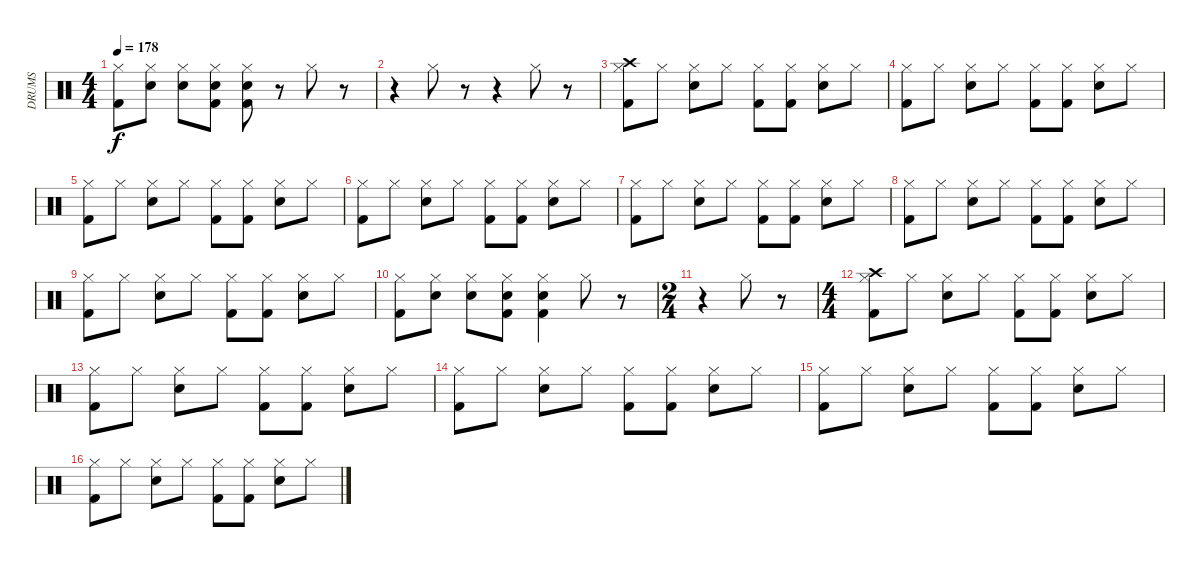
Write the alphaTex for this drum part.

\track ("DRUMS" "DRUMS") {instrument percussion}
\staff {score}
\articulation defaults
\ts (4 4)
\tempo 178
\clef neutral
\ks c
("Hi-Hat (closed)" "Kick (hit) 2").8{dy f} ("Hi-Hat (closed)" "Snare (hit) 2").8 ("Hi-Hat (closed)" "Snare (hit) 2").8 ("Hi-Hat (closed)" "Snare (hit) 2" "Kick (hit) 2").8 ("Hi-Hat (closed)" "Snare (hit) 2" "Kick (hit) 2").8 r.8 "Hi-Hat (closed)".8 r.8 |
r.4 "Hi-Hat (closed)".8 r.8 r.4 "Hi-Hat (closed)".8 r.8 |
("Hi-Hat (closed)" "Crash high (hit)" "Kick (hit) 2").8 "Hi-Hat (closed)".8 ("Hi-Hat (closed)" "Snare (hit) 2").8 "Hi-Hat (closed)".8 ("Hi-Hat (closed)" "Kick (hit) 2").8 ("Hi-Hat (closed)" "Kick (hit) 2").8 ("Hi-Hat (closed)" "Snare (hit) 2").8 "Hi-Hat (closed)".8 |
("Hi-Hat (closed)" "Kick (hit) 2").8 "Hi-Hat (closed)".8 ("Hi-Hat (closed)" "Snare (hit) 2").8 "Hi-Hat (closed)".8 ("Hi-Hat (closed)" "Kick (hit) 2").8 ("Hi-Hat (closed)" "Kick (hit) 2").8 ("Hi-Hat (closed)" "Snare (hit) 2").8 "Hi-Hat (closed)".8 |
("Hi-Hat (closed)" "Kick (hit) 2").8 "Hi-Hat (closed)".8 ("Hi-Hat (closed)" "Snare (hit) 2").8 "Hi-Hat (closed)".8 ("Hi-Hat (closed)" "Kick (hit) 2").8 ("Hi-Hat (closed)" "Kick (hit) 2").8 ("Hi-Hat (closed)" "Snare (hit) 2").8 "Hi-Hat (closed)".8 |
("Hi-Hat (closed)" "Kick (hit) 2").8 "Hi-Hat (closed)".8 ("Hi-Hat (closed)" "Snare (hit) 2").8 "Hi-Hat (closed)".8 ("Hi-Hat (closed)" "Kick (hit) 2").8 ("Hi-Hat (closed)" "Kick (hit) 2").8 ("Hi-Hat (closed)" "Snare (hit) 2").8 "Hi-Hat (closed)".8 |
("Hi-Hat (closed)" "Kick (hit) 2").8 "Hi-Hat (closed)".8 ("Hi-Hat (closed)" "Snare (hit) 2").8 "Hi-Hat (closed)".8 ("Hi-Hat (closed)" "Kick (hit) 2").8 ("Hi-Hat (closed)" "Kick (hit) 2").8 ("Hi-Hat (closed)" "Snare (hit) 2").8 "Hi-Hat (closed)".8 |
("Hi-Hat (closed)" "Kick (hit) 2").8 "Hi-Hat (closed)".8 ("Hi-Hat (closed)" "Snare (hit) 2").8 "Hi-Hat (closed)".8 ("Hi-Hat (closed)" "Kick (hit) 2").8 ("Hi-Hat (closed)" "Kick (hit) 2").8 ("Hi-Hat (closed)" "Snare (hit) 2").8 "Hi-Hat (closed)".8 |
("Hi-Hat (closed)" "Kick (hit) 2").8 "Hi-Hat (closed)".8 ("Hi-Hat (closed)" "Snare (hit) 2").8 "Hi-Hat (closed)".8 ("Hi-Hat (closed)" "Kick (hit) 2").8 ("Hi-Hat (closed)" "Kick (hit) 2").8 ("Hi-Hat (closed)" "Snare (hit) 2").8 "Hi-Hat (closed)".8 |
("Hi-Hat (closed)" "Kick (hit) 2").8 ("Hi-Hat (closed)" "Snare (hit) 2").8 ("Hi-Hat (closed)" "Snare (hit) 2").8 ("Hi-Hat (closed)" "Snare (hit) 2" "Kick (hit) 2").8 ("Hi-Hat (closed)" "Snare (hit) 2" "Kick (hit) 2").4 "Hi-Hat (closed)".8 r.8 |
\ts (2 4)
r.4 "Hi-Hat (closed)".8 r.8 |
\ts (4 4)
("Hi-Hat (closed)" "Crash high (hit)" "Kick (hit) 2").8 "Hi-Hat (closed)".8 ("Hi-Hat (closed)" "Snare (hit) 2").8 "Hi-Hat (closed)".8 ("Hi-Hat (closed)" "Kick (hit) 2").8 ("Hi-Hat (closed)" "Kick (hit) 2").8 ("Hi-Hat (closed)" "Snare (hit) 2").8 "Hi-Hat (closed)".8 |
("Hi-Hat (closed)" "Kick (hit) 2").8 "Hi-Hat (closed)".8 ("Hi-Hat (closed)" "Snare (hit) 2").8 "Hi-Hat (closed)".8 ("Hi-Hat (closed)" "Kick (hit) 2").8 ("Hi-Hat (closed)" "Kick (hit) 2").8 ("Hi-Hat (closed)" "Snare (hit) 2").8 "Hi-Hat (closed)".8 |
("Hi-Hat (closed)" "Kick (hit) 2").8 "Hi-Hat (closed)".8 ("Hi-Hat (closed)" "Snare (hit) 2").8 "Hi-Hat (closed)".8 ("Hi-Hat (closed)" "Kick (hit) 2").8 ("Hi-Hat (closed)" "Kick (hit) 2").8 ("Hi-Hat (closed)" "Snare (hit) 2").8 "Hi-Hat (closed)".8 |
("Hi-Hat (closed)" "Kick (hit) 2").8 "Hi-Hat (closed)".8 ("Hi-Hat (closed)" "Snare (hit) 2").8 "Hi-Hat (closed)".8 ("Hi-Hat (closed)" "Kick (hit) 2").8 ("Hi-Hat (closed)" "Kick (hit) 2").8 ("Hi-Hat (closed)" "Snare (hit) 2").8 "Hi-Hat (closed)".8 |
("Hi-Hat (closed)" "Kick (hit) 2").8 "Hi-Hat (closed)".8 ("Hi-Hat (closed)" "Snare (hit) 2").8 "Hi-Hat (closed)".8 ("Hi-Hat (closed)" "Kick (hit) 2").8 ("Hi-Hat (closed)" "Kick (hit) 2").8 ("Hi-Hat (closed)" "Snare (hit) 2").8 "Hi-Hat (closed)".8
